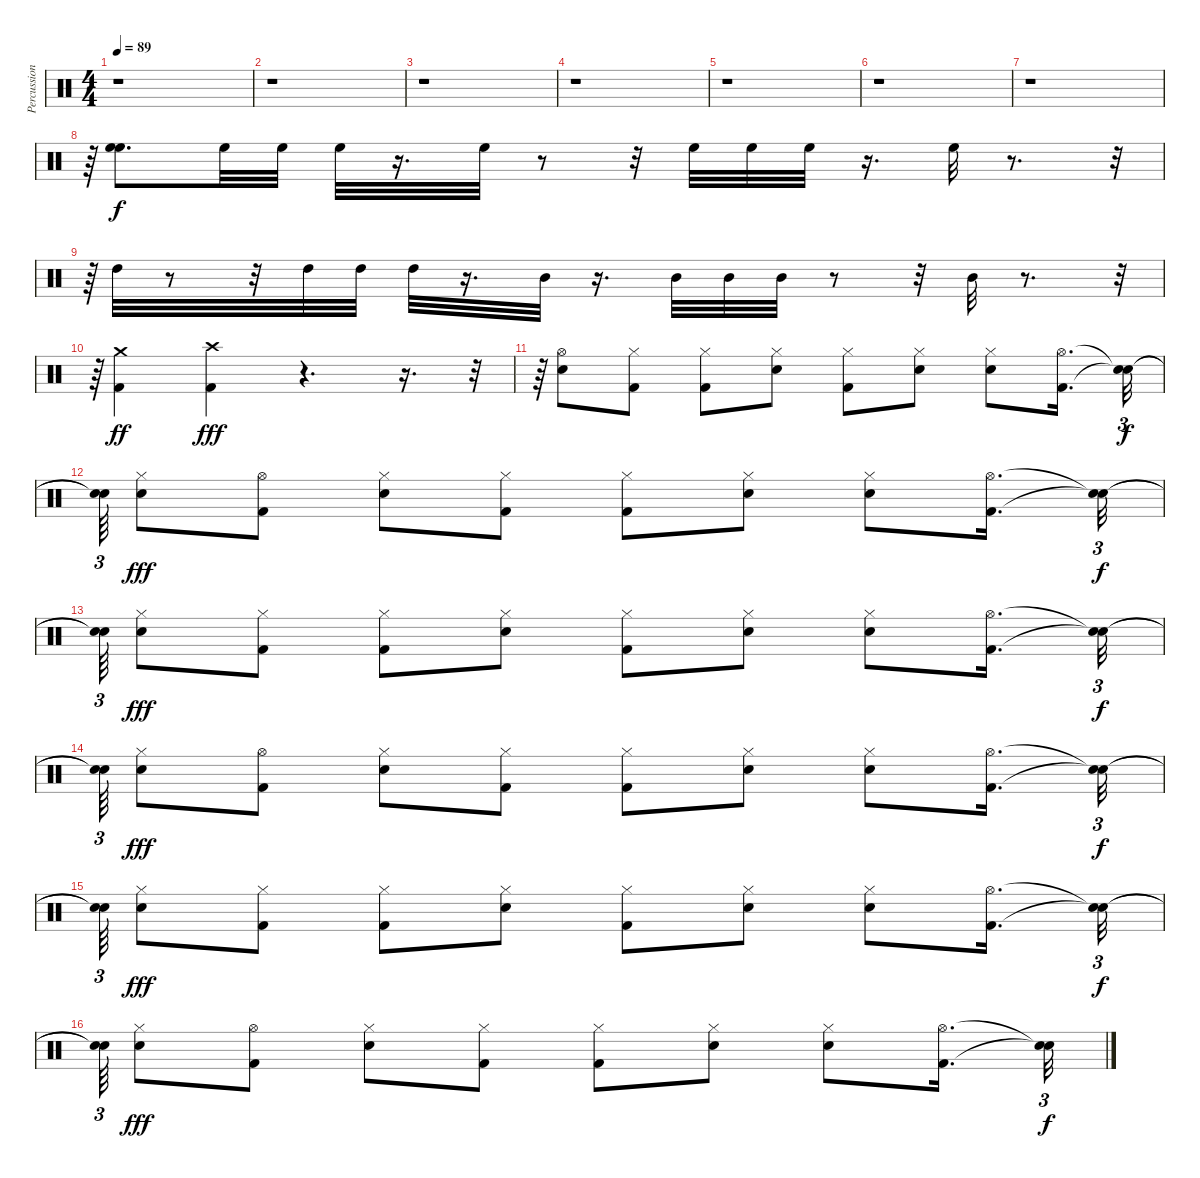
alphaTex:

\track ("Percussioni" "Percussion") {instrument percussion}
\staff {score}
\articulation defaults
\ts (4 4)
\tempo 89
\clef neutral
\ks c
r.1{dy ff} |
r.1 |
r.1 |
r.1 |
r.1 |
r.1 |
r.1 |
r.64{tu (3 2)} ("High Floor Tom (hit)" "High Floor Tom (hit)").8{d dy f} "High Floor Tom (hit)".32 "High Floor Tom (hit)".32 "High Floor Tom (hit)".32 r.16{d} "High Floor Tom (hit)".32 r.8 r.32 "High Floor Tom (hit)".32 "High Floor Tom (hit)".32 "High Floor Tom (hit)".32 r.16{d} "High Floor Tom (hit)".32 r.8{d} r.32{tu (3 2)} |
r.64{tu (3 2)} "High Tom (hit)".32 r.8 r.32 "High Tom (hit)".32 "High Tom (hit)".32 "High Tom (hit)".32 r.16{d} "Mid Tom (hit)".32 r.16{d} "Mid Tom (hit)".32 "Mid Tom (hit)".32 "Mid Tom (hit)".32 r.8 r.32 "Mid Tom (hit)".32 r.8{d} r.32{tu (3 2)} |
r.64{tu (3 2)} ("Crash medium (hit)" "Kick (hit) 2").4{dy ff} ("Crash high (hit)" "Kick (hit) 2").4{dy fff} r.4{d} r.16{d} r.32{tu (3 2)} |
r.64{tu (3 2)} ("Hi-Hat (open)" "Snare (hit) 2").8 ("Hi-Hat (closed)" "Kick (hit) 2").8 ("Hi-Hat (closed)" "Kick (hit) 2").8 ("Hi-Hat (closed)" "Snare (hit) 2").8 ("Hi-Hat (closed)" "Kick (hit) 2").8 ("Hi-Hat (closed)" "Snare (hit) 2").8 ("Hi-Hat (closed)" "Snare (hit) 2").8 ("Hi-Hat (open)" "Kick (hit) 2").16{d} ("Snare (hit)"{t} "Snare (hit)"{t}).32{tu (3 2) dy f} |
("Snare (hit)"{t} "Snare (hit)"{t}).64{tu (3 2)} ("Hi-Hat (closed)" "Snare (hit) 2").8{dy fff} ("Hi-Hat (open)" "Kick (hit) 2").8 ("Hi-Hat (closed)" "Snare (hit) 2").8 ("Hi-Hat (closed)" "Kick (hit) 2").8 ("Hi-Hat (closed)" "Kick (hit) 2").8 ("Hi-Hat (closed)" "Snare (hit) 2").8 ("Hi-Hat (closed)" "Snare (hit) 2").8 ("Hi-Hat (open)" "Kick (hit) 2").16{d} ("Snare (hit)"{t} "Snare (hit)"{t}).32{tu (3 2) dy f} |
("Snare (hit)"{t} "Snare (hit)"{t}).64{tu (3 2)} ("Hi-Hat (closed)" "Snare (hit) 2").8{dy fff} ("Hi-Hat (closed)" "Kick (hit) 2").8 ("Hi-Hat (closed)" "Kick (hit) 2").8 ("Hi-Hat (closed)" "Snare (hit) 2").8 ("Hi-Hat (closed)" "Kick (hit) 2").8 ("Hi-Hat (closed)" "Snare (hit) 2").8 ("Hi-Hat (closed)" "Snare (hit) 2").8 ("Hi-Hat (open)" "Kick (hit) 2").16{d} ("Snare (hit)"{t} "Snare (hit)"{t}).32{tu (3 2) dy f} |
("Snare (hit)"{t} "Snare (hit)"{t}).64{tu (3 2)} ("Hi-Hat (closed)" "Snare (hit) 2").8{dy fff} ("Hi-Hat (open)" "Kick (hit) 2").8 ("Hi-Hat (closed)" "Snare (hit) 2").8 ("Hi-Hat (closed)" "Kick (hit) 2").8 ("Hi-Hat (closed)" "Kick (hit) 2").8 ("Hi-Hat (closed)" "Snare (hit) 2").8 ("Hi-Hat (closed)" "Snare (hit) 2").8 ("Hi-Hat (open)" "Kick (hit) 2").16{d} ("Snare (hit)"{t} "Snare (hit)"{t}).32{tu (3 2) dy f} |
("Snare (hit)"{t} "Snare (hit)"{t}).64{tu (3 2)} ("Hi-Hat (closed)" "Snare (hit) 2").8{dy fff} ("Hi-Hat (closed)" "Kick (hit) 2").8 ("Hi-Hat (closed)" "Kick (hit) 2").8 ("Hi-Hat (closed)" "Snare (hit) 2").8 ("Hi-Hat (closed)" "Kick (hit) 2").8 ("Hi-Hat (closed)" "Snare (hit) 2").8 ("Hi-Hat (closed)" "Snare (hit) 2").8 ("Hi-Hat (open)" "Kick (hit) 2").16{d} ("Snare (hit)"{t} "Snare (hit)"{t}).32{tu (3 2) dy f} |
("Snare (hit)"{t} "Snare (hit)"{t}).64{tu (3 2)} ("Hi-Hat (closed)" "Snare (hit) 2").8{dy fff} ("Hi-Hat (open)" "Kick (hit) 2").8 ("Hi-Hat (closed)" "Snare (hit) 2").8 ("Hi-Hat (closed)" "Kick (hit) 2").8 ("Hi-Hat (closed)" "Kick (hit) 2").8 ("Hi-Hat (closed)" "Snare (hit) 2").8 ("Hi-Hat (closed)" "Snare (hit) 2").8 ("Hi-Hat (open)" "Kick (hit) 2").16{d} ("Snare (hit)"{t} "Snare (hit)"{t}).32{tu (3 2) dy f}
